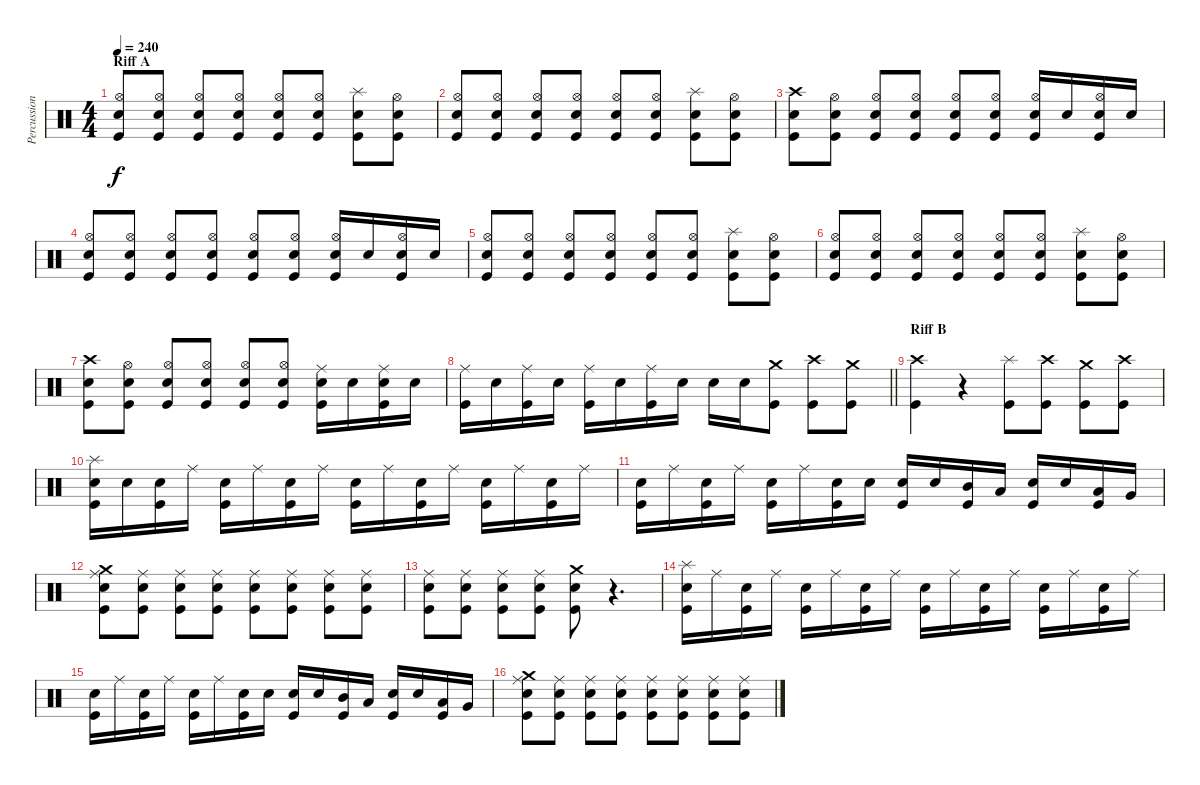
\track ("Percussions" "Percussion") {instrument percussion}
\staff {score}
\articulation defaults
\ts (4 4)
\section ("" "Riff A")
\tempo 240
\clef neutral
\ks c
("Electric Snare (hit)" "Hi-Hat (open)" "Kick (hit)").8{dy f} ("Electric Snare (hit)" "Hi-Hat (open)" "Kick (hit)").8 ("Electric Snare (hit)" "Hi-Hat (open)" "Kick (hit)").8 ("Electric Snare (hit)" "Hi-Hat (open)" "Kick (hit)").8 ("Electric Snare (hit)" "Hi-Hat (open)" "Kick (hit)").8 ("Electric Snare (hit)" "Hi-Hat (open)" "Kick (hit)").8 ("Splash (hit)" "Electric Snare (hit)" "Kick (hit)").8 ("Electric Snare (hit)" "Hi-Hat (open)" "Kick (hit)").8 |
("Electric Snare (hit)" "Hi-Hat (open)" "Kick (hit)").8 ("Electric Snare (hit)" "Hi-Hat (open)" "Kick (hit)").8 ("Electric Snare (hit)" "Hi-Hat (open)" "Kick (hit)").8 ("Electric Snare (hit)" "Hi-Hat (open)" "Kick (hit)").8 ("Electric Snare (hit)" "Hi-Hat (open)" "Kick (hit)").8 ("Electric Snare (hit)" "Hi-Hat (open)" "Kick (hit)").8 ("Splash (hit)" "Electric Snare (hit)" "Kick (hit)").8 ("Electric Snare (hit)" "Hi-Hat (open)" "Kick (hit)").8 |
("Crash high (hit)" "Electric Snare (hit)" "Kick (hit)").8 ("Electric Snare (hit)" "Hi-Hat (open)" "Kick (hit)").8 ("Electric Snare (hit)" "Hi-Hat (open)" "Kick (hit)").8 ("Electric Snare (hit)" "Hi-Hat (open)" "Kick (hit)").8 ("Electric Snare (hit)" "Hi-Hat (open)" "Kick (hit)").8 ("Electric Snare (hit)" "Hi-Hat (open)" "Kick (hit)").8 ("Electric Snare (hit)" "Hi-Hat (open)" "Kick (hit)").16 "Electric Snare (hit)".16 ("Electric Snare (hit)" "Hi-Hat (open)" "Kick (hit)").16 "Electric Snare (hit)".16 |
("Electric Snare (hit)" "Hi-Hat (open)" "Kick (hit)").8 ("Electric Snare (hit)" "Hi-Hat (open)" "Kick (hit)").8 ("Electric Snare (hit)" "Hi-Hat (open)" "Kick (hit)").8 ("Electric Snare (hit)" "Hi-Hat (open)" "Kick (hit)").8 ("Electric Snare (hit)" "Hi-Hat (open)" "Kick (hit)").8 ("Electric Snare (hit)" "Hi-Hat (open)" "Kick (hit)").8 ("Electric Snare (hit)" "Hi-Hat (open)" "Kick (hit)").16 "Electric Snare (hit)".16 ("Electric Snare (hit)" "Hi-Hat (open)" "Kick (hit)").16 "Electric Snare (hit)".16 |
("Electric Snare (hit)" "Hi-Hat (open)" "Kick (hit)").8 ("Electric Snare (hit)" "Hi-Hat (open)" "Kick (hit)").8 ("Electric Snare (hit)" "Hi-Hat (open)" "Kick (hit)").8 ("Electric Snare (hit)" "Hi-Hat (open)" "Kick (hit)").8 ("Electric Snare (hit)" "Hi-Hat (open)" "Kick (hit)").8 ("Electric Snare (hit)" "Hi-Hat (open)" "Kick (hit)").8 ("Splash (hit)" "Electric Snare (hit)" "Kick (hit)").8 ("Electric Snare (hit)" "Hi-Hat (open)" "Kick (hit)").8 |
("Electric Snare (hit)" "Hi-Hat (open)" "Kick (hit)").8 ("Electric Snare (hit)" "Hi-Hat (open)" "Kick (hit)").8 ("Electric Snare (hit)" "Hi-Hat (open)" "Kick (hit)").8 ("Electric Snare (hit)" "Hi-Hat (open)" "Kick (hit)").8 ("Electric Snare (hit)" "Hi-Hat (open)" "Kick (hit)").8 ("Electric Snare (hit)" "Hi-Hat (open)" "Kick (hit)").8 ("Splash (hit)" "Electric Snare (hit)" "Kick (hit)").8 ("Electric Snare (hit)" "Hi-Hat (open)" "Kick (hit)").8 |
("Crash high (hit)" "Electric Snare (hit)" "Kick (hit)").8 ("Electric Snare (hit)" "Hi-Hat (open)" "Kick (hit)").8 ("Electric Snare (hit)" "Hi-Hat (open)" "Kick (hit)").8 ("Electric Snare (hit)" "Hi-Hat (open)" "Kick (hit)").8 ("Electric Snare (hit)" "Hi-Hat (open)" "Kick (hit)").8 ("Electric Snare (hit)" "Hi-Hat (open)" "Kick (hit)").8 ("Electric Snare (hit)" "Ride (middle)" "Kick (hit)").16 "Electric Snare (hit)".16 ("Electric Snare (hit)" "Ride (middle)" "Kick (hit)").16 "Electric Snare (hit)".16 |
\barLineRight lightlight
("Ride (middle)" "Kick (hit)").16 "Electric Snare (hit)".16 ("Ride (middle)" "Kick (hit)").16 "Electric Snare (hit)".16 ("Ride (middle)" "Kick (hit)").16 "Electric Snare (hit)".16 ("Ride (middle)" "Kick (hit)").16 "Electric Snare (hit)".16 "Electric Snare (hit)".16 "Electric Snare (hit)".16 ("Crash medium (hit)" "Kick (hit)").8 ("Crash high (hit)" "Kick (hit)").8 ("Crash medium (hit)" "Kick (hit)").8 |
\section ("" "Riff B")
("Crash high (hit)" "Kick (hit)").4 r.4{volume 1} ("Splash (hit)" "Kick (hit)").8{volume 13} ("Crash high (hit)" "Kick (hit)").8 ("Crash medium (hit)" "Kick (hit)").8 ("Crash high (hit)" "Kick (hit)").8 |
("Splash (hit)" "Electric Snare (hit)" "Kick (hit)").16 "Electric Snare (hit)".16 ("Electric Snare (hit)" "Kick (hit)").16 "Ride (middle)".16 ("Electric Snare (hit)" "Kick (hit)").16 "Ride (middle)".16 ("Electric Snare (hit)" "Kick (hit)").16 "Ride (middle)".16 ("Electric Snare (hit)" "Kick (hit)").16 "Ride (middle)".16 ("Electric Snare (hit)" "Kick (hit)").16 "Ride (middle)".16 ("Electric Snare (hit)" "Kick (hit)").16 "Ride (middle)".16 ("Electric Snare (hit)" "Kick (hit)").16 "Ride (middle)".16 |
("Electric Snare (hit)" "Kick (hit)").16 "Ride (middle)".16 ("Electric Snare (hit)" "Kick (hit)").16 "Ride (middle)".16 ("Electric Snare (hit)" "Kick (hit)").16 "Ride (middle)".16 ("Electric Snare (hit)" "Kick (hit)").16 "Electric Snare (hit)".16 ("Electric Snare (hit)" "Kick (hit)").16 "Electric Snare (hit)".16 ("Mid Tom (hit)" "Kick (hit)").16 "Low Tom (hit)".16 ("Electric Snare (hit)" "Kick (hit)").16 "Electric Snare (hit)".16 ("Low Tom (hit)" "Kick (hit)").16 "Very Low Tom (hit)".16 |
("Crash medium (hit)" "Electric Snare (hit)" "Ride (middle)" "Kick (hit)").8 ("Electric Snare (hit)" "Ride (middle)" "Kick (hit)").8 ("Electric Snare (hit)" "Ride (middle)" "Kick (hit)").8 ("Electric Snare (hit)" "Ride (middle)" "Kick (hit)").8 ("Electric Snare (hit)" "Ride (middle)" "Kick (hit)").8 ("Electric Snare (hit)" "Ride (middle)" "Kick (hit)").8 ("Electric Snare (hit)" "Ride (middle)" "Kick (hit)").8 ("Electric Snare (hit)" "Ride (middle)" "Kick (hit)").8 |
("Electric Snare (hit)" "Ride (middle)" "Kick (hit)").8 ("Electric Snare (hit)" "Ride (middle)" "Kick (hit)").8 ("Electric Snare (hit)" "Ride (middle)" "Kick (hit)").8 ("Electric Snare (hit)" "Ride (middle)" "Kick (hit)").8 ("Crash medium (hit)" "Electric Snare (hit)" "Kick (hit)").8 r.4{d volume 0} |
("Splash (hit)" "Electric Snare (hit)" "Kick (hit)").16{volume 13} "Ride (middle)".16 ("Electric Snare (hit)" "Kick (hit)").16 "Ride (middle)".16 ("Electric Snare (hit)" "Kick (hit)").16 "Ride (middle)".16 ("Electric Snare (hit)" "Kick (hit)").16 "Ride (middle)".16 ("Electric Snare (hit)" "Kick (hit)").16 "Ride (middle)".16 ("Electric Snare (hit)" "Kick (hit)").16 "Ride (middle)".16 ("Electric Snare (hit)" "Kick (hit)").16 "Ride (middle)".16 ("Electric Snare (hit)" "Kick (hit)").16 "Ride (middle)".16 |
("Electric Snare (hit)" "Kick (hit)").16 "Ride (middle)".16 ("Electric Snare (hit)" "Kick (hit)").16 "Ride (middle)".16 ("Electric Snare (hit)" "Kick (hit)").16 "Ride (middle)".16 ("Electric Snare (hit)" "Kick (hit)").16 "Electric Snare (hit)".16 ("Electric Snare (hit)" "Kick (hit)").16 "Electric Snare (hit)".16 ("Mid Tom (hit)" "Kick (hit)").16 "Low Tom (hit)".16 ("Electric Snare (hit)" "Kick (hit)").16 "Electric Snare (hit)".16 ("Low Tom (hit)" "Kick (hit)").16 "Very Low Tom (hit)".16 |
("Crash medium (hit)" "Electric Snare (hit)" "Ride (middle)" "Kick (hit)").8 ("Electric Snare (hit)" "Ride (middle)" "Kick (hit)").8 ("Electric Snare (hit)" "Ride (middle)" "Kick (hit)").8 ("Electric Snare (hit)" "Ride (middle)" "Kick (hit)").8 ("Electric Snare (hit)" "Ride (middle)" "Kick (hit)").8 ("Electric Snare (hit)" "Ride (middle)" "Kick (hit)").8 ("Electric Snare (hit)" "Ride (middle)" "Kick (hit)").8 ("Electric Snare (hit)" "Ride (middle)" "Kick (hit)").8
